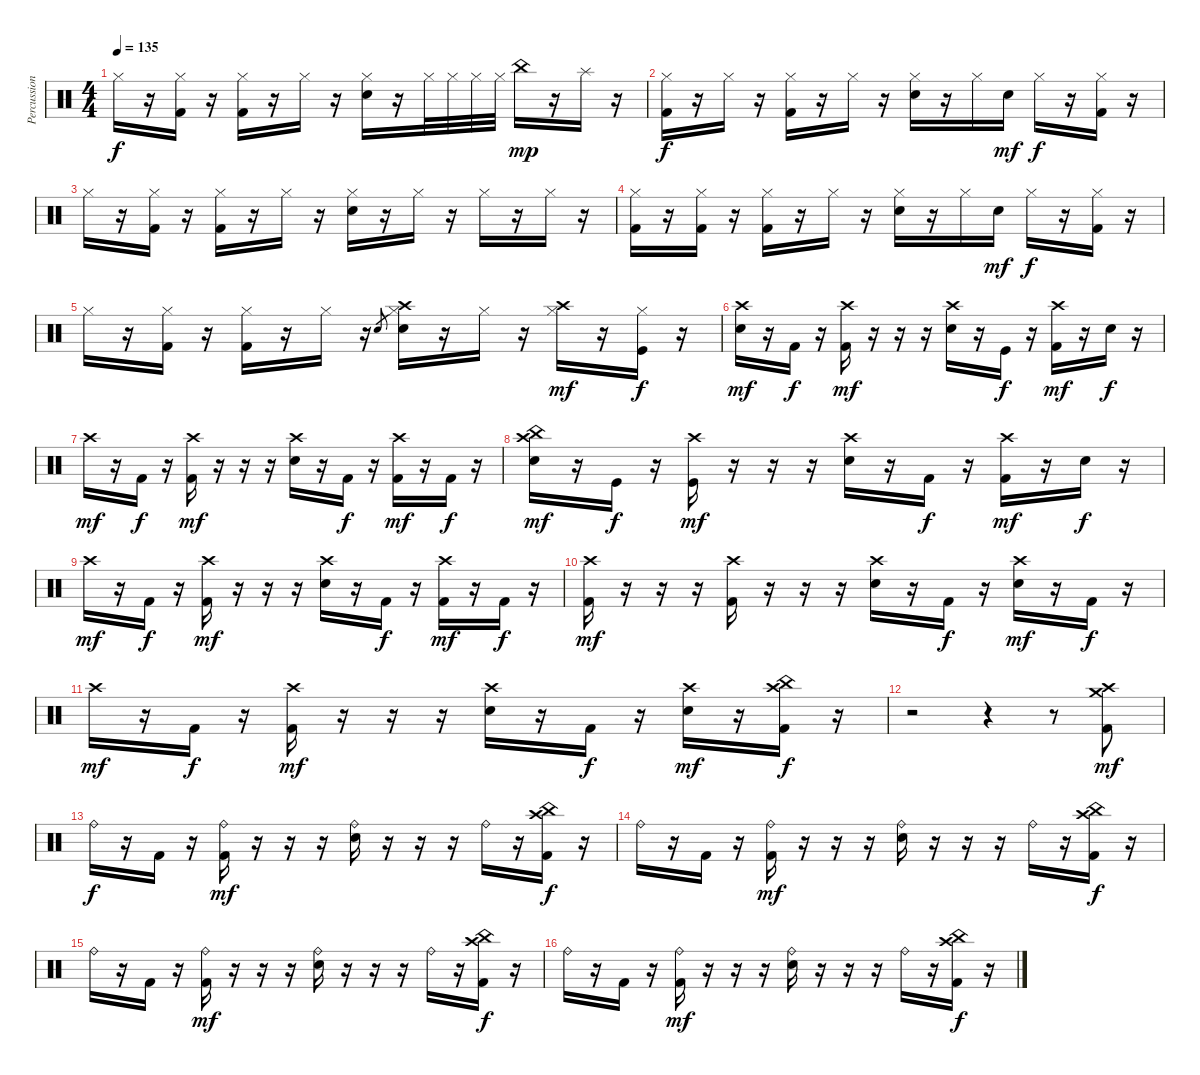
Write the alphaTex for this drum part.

\track ("Percussion" "Percussion") {instrument percussion}
\staff {score}
\articulation defaults
\ts (4 4)
\tempo 135
\clef neutral
\ks c "Hi-Hat (closed)".16{dy f}
r.16 ("Hi-Hat (closed)" "Kick (hit) 2").16 r.16 ("Hi-Hat (closed)" "Kick (hit) 2").16 r.16 "Hi-Hat (closed)".16 r.16 ("Hi-Hat (closed)" "Electric Snare (hit)").16 r.16 "Hi-Hat (closed)".32 "Hi-Hat (closed)".32 "Hi-Hat (closed)".32 "Hi-Hat (closed)".32 "China (hit)".16{dy mp} r.16 "Splash (hit)".16 r.16 |
("Hi-Hat (closed)" "Kick (hit) 2").16{dy f} r.16 "Hi-Hat (closed)".16 r.16 ("Hi-Hat (closed)" "Kick (hit) 2").16 r.16 "Hi-Hat (closed)".16 r.16 ("Hi-Hat (closed)" "Electric Snare (hit)").16 r.16 "Hi-Hat (closed)".16 "Electric Snare (hit)".16{dy mf} "Hi-Hat (closed)".16{dy f} r.16 ("Hi-Hat (closed)" "Kick (hit) 2").16 r.16 |
"Hi-Hat (closed)".16 r.16 ("Hi-Hat (closed)" "Kick (hit) 2").16 r.16 ("Hi-Hat (closed)" "Kick (hit) 2").16 r.16 "Hi-Hat (closed)".16 r.16 ("Hi-Hat (closed)" "Electric Snare (hit)").16 r.16 "Hi-Hat (closed)".16 r.16 "Hi-Hat (closed)".16 r.16 "Hi-Hat (closed)".16 r.16 |
("Hi-Hat (closed)" "Kick (hit) 2").16 r.16 ("Hi-Hat (closed)" "Kick (hit) 2").16 r.16 ("Hi-Hat (closed)" "Kick (hit) 2").16 r.16 "Hi-Hat (closed)".16 r.16 ("Hi-Hat (closed)" "Electric Snare (hit)").16 r.16 "Hi-Hat (closed)".16 "Electric Snare (hit)".16{dy mf} "Hi-Hat (closed)".16{dy f} r.16 ("Hi-Hat (closed)" "Kick (hit) 2").16 r.16 |
"Hi-Hat (closed)".16 r.16 ("Hi-Hat (closed)" "Kick (hit) 2").16 r.16 ("Hi-Hat (closed)" "Kick (hit) 2").16 r.16 "Hi-Hat (closed)".16 r.16 "Electric Snare (hit)".8{gr} ("Hi-Hat (closed)" "Crash high (hit)" "Electric Snare (hit)").16 r.16 "Hi-Hat (closed)".16 r.16 ("Hi-Hat (closed)" "Crash high (hit)").16{dy mf} r.16 ("Hi-Hat (closed)" "Kick (hit)").16{dy f} r.16 |
("Crash high (hit)" "Electric Snare (hit)").16{dy mf} r.16 "Kick (hit) 2".16{dy f} r.16 ("Crash high (hit)" "Kick (hit) 2").16{dy mf} r.16 r.16 r.16 ("Crash high (hit)" "Electric Snare (hit)").16 r.16 "Kick (hit)".16{dy f} r.16 ("Crash high (hit)" "Kick (hit) 2").16{dy mf} r.16 "Electric Snare (hit)".16{dy f} r.16 |
"Crash high (hit)".16{dy mf} r.16 "Kick (hit) 2".16{dy f} r.16 ("Crash high (hit)" "Kick (hit) 2").16{dy mf} r.16 r.16 r.16 ("Crash high (hit)" "Electric Snare (hit)").16 r.16 "Kick (hit) 2".16{dy f} r.16 ("Crash high (hit)" "Kick (hit) 2").16{dy mf} r.16 "Kick (hit) 2".16{dy f} r.16 |
("Crash high (hit)" "China (hit)" "Electric Snare (hit)").16{dy mf} r.16 "Kick (hit)".16{dy f} r.16 ("Crash high (hit)" "Kick (hit)").16{dy mf} r.16 r.16 r.16 ("Crash high (hit)" "Electric Snare (hit)").16 r.16 "Kick (hit) 2".16{dy f} r.16 ("Crash high (hit)" "Kick (hit) 2").16{dy mf} r.16 "Electric Snare (hit)".16{dy f} r.16 |
"Crash high (hit)".16{dy mf} r.16 "Kick (hit) 2".16{dy f} r.16 ("Crash high (hit)" "Kick (hit) 2").16{dy mf} r.16 r.16 r.16 ("Crash high (hit)" "Electric Snare (hit)").16 r.16 "Kick (hit) 2".16{dy f} r.16 ("Crash high (hit)" "Kick (hit) 2").16{dy mf} r.16 "Kick (hit) 2".16{dy f} r.16 |
("Crash high (hit)" "Kick (hit) 2").16{dy mf} r.16 r.16 r.16 ("Crash high (hit)" "Kick (hit) 2").16 r.16 r.16 r.16 ("Crash high (hit)" "Electric Snare (hit)").16 r.16 "Kick (hit) 2".16{dy f} r.16 ("Crash high (hit)" "Electric Snare (hit)").16{dy mf} r.16 "Kick (hit) 2".16{dy f} r.16 |
"Crash high (hit)".16{dy mf} r.16 "Kick (hit) 2".16{dy f} r.16 ("Crash high (hit)" "Kick (hit) 2").16{dy mf} r.16 r.16 r.16 ("Crash high (hit)" "Electric Snare (hit)").16 r.16 "Kick (hit) 2".16{dy f} r.16 ("Crash high (hit)" "Electric Snare (hit)").16{dy mf} r.16 ("Crash high (hit)" "China (hit)" "Kick (hit) 2").16{dy f} r.16 |
r.2 r.4 r.8 ("Crash high (hit)" "Crash medium (hit)" "Kick (hit) 2").8{dy mf} |
"Ride (bell)".16{dy f} r.16 "Kick (hit) 2".16 r.16 ("Ride (bell)" "Kick (hit) 2").16{dy mf} r.16 r.16 r.16 ("Ride (bell)" "Electric Snare (hit)").16 r.16 r.16 r.16 "Ride (bell)".16 r.16 ("Crash high (hit)" "China (hit)" "Kick (hit) 2").16{dy f} r.16 |
"Ride (bell)".16 r.16 "Kick (hit) 2".16 r.16 ("Ride (bell)" "Kick (hit) 2").16{dy mf} r.16 r.16 r.16 ("Ride (bell)" "Electric Snare (hit)").16 r.16 r.16 r.16 "Ride (bell)".16 r.16 ("Crash high (hit)" "China (hit)" "Kick (hit) 2").16{dy f} r.16 |
"Ride (bell)".16 r.16 "Kick (hit) 2".16 r.16 ("Ride (bell)" "Kick (hit) 2").16{dy mf} r.16 r.16 r.16 ("Ride (bell)" "Electric Snare (hit)").16 r.16 r.16 r.16 "Ride (bell)".16 r.16 ("Crash high (hit)" "China (hit)" "Kick (hit) 2").16{dy f} r.16 |
"Ride (bell)".16 r.16 "Kick (hit) 2".16 r.16 ("Ride (bell)" "Kick (hit) 2").16{dy mf} r.16 r.16 r.16 ("Ride (bell)" "Electric Snare (hit)").16 r.16 r.16 r.16 "Ride (bell)".16 r.16 ("Crash high (hit)" "China (hit)" "Kick (hit) 2").16{dy f} r.16
